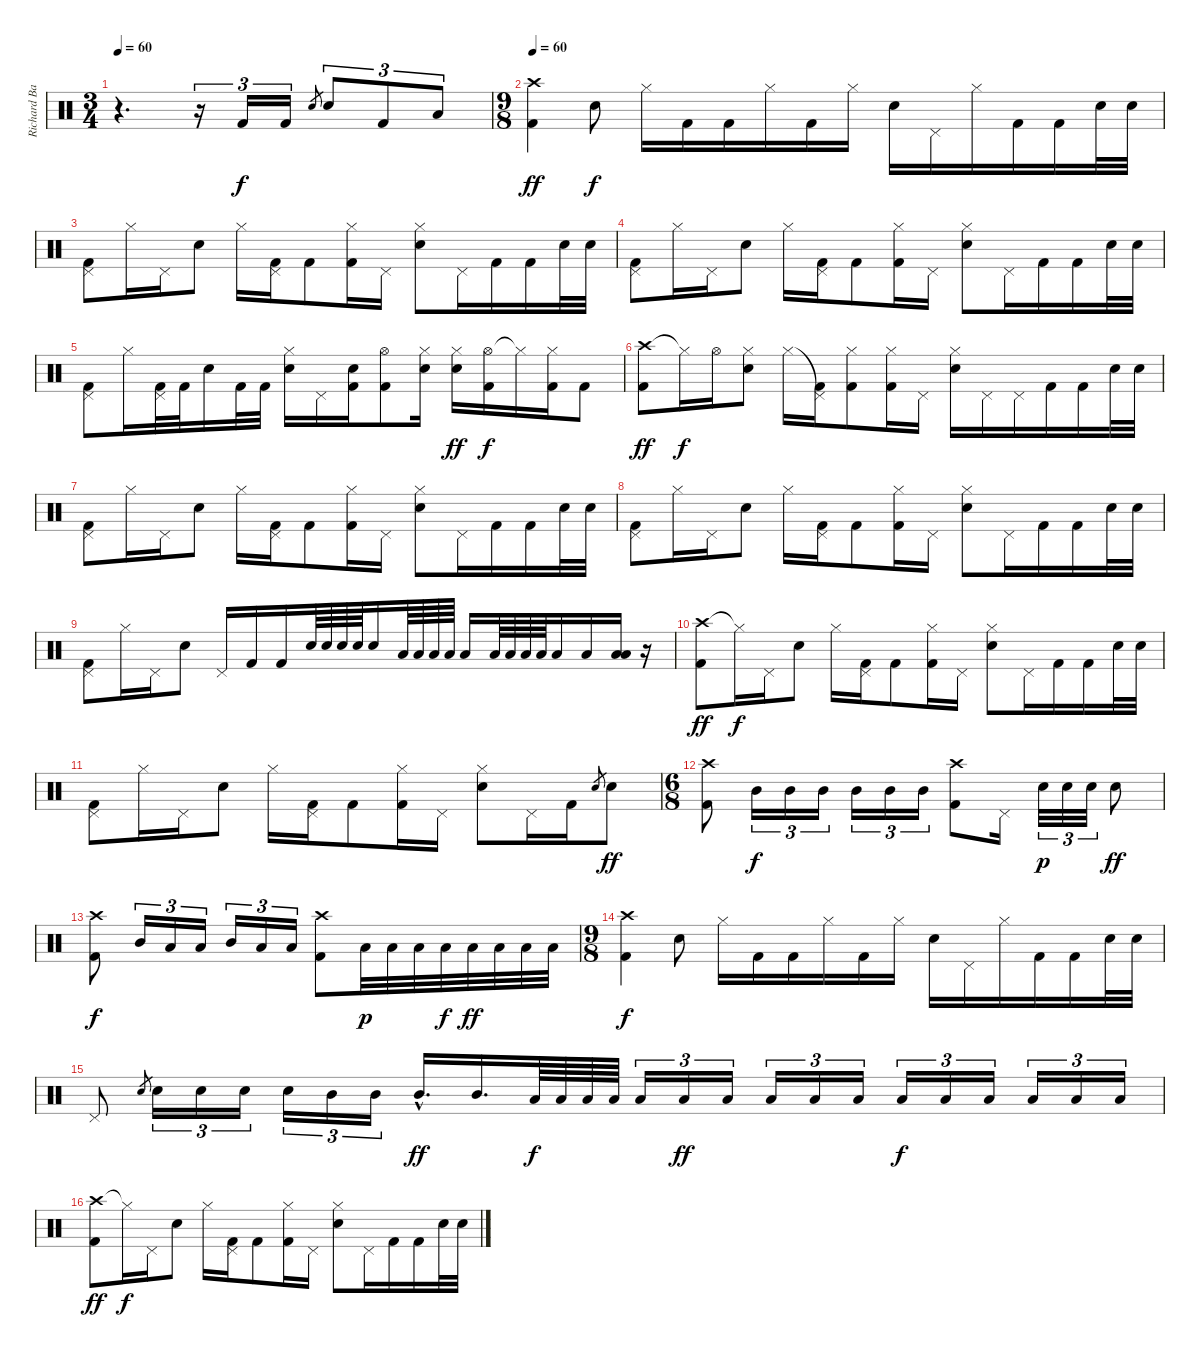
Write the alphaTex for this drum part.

\track ("Richard Bailey" "Richard Ba") {instrument percussion}
\staff {score}
\articulation defaults
\ts (3 4)
\tempo 60
\tempo 66
\tempo 60
\clef neutral
\ks c
r.4{d dy f} r.16{tu (3 2)} "Kick (hit) 2".16{tu (3 2)} "Kick (hit) 2".16{tu (3 2)} "Snare (hit) 2".8{gr} "Snare (hit) 2".8{tu (3 2)} "Kick (hit) 2".8{tu (3 2)} "Low Floor Tom (hit)".8{tu (3 2)} |
\ts (9 8)
\tempo 60
("Crash high (hit)" "Kick (hit) 2").4{dy ff} "Snare (hit) 2".8{dy f} "Hi-Hat (closed)".16 "Kick (hit) 2".16 "Kick (hit) 2".16 "Hi-Hat (closed)".16 "Kick (hit) 2".16 "Hi-Hat (closed)".16 "Snare (hit) 2".16 "Pedal Hi-Hat (hit)".16 "Hi-Hat (closed)".16 "Kick (hit) 2".16 "Kick (hit) 2".16 "Snare (hit) 2".32 "Snare (hit) 2".32 |
("Pedal Hi-Hat (hit)" "Kick (hit) 2").8 "Hi-Hat (closed)".16 "Pedal Hi-Hat (hit)".16 "Snare (hit) 2".8 "Hi-Hat (closed)".16 ("Pedal Hi-Hat (hit)" "Kick (hit) 2").16 "Kick (hit) 2".8 ("Hi-Hat (closed)" "Kick (hit) 2").16 "Pedal Hi-Hat (hit)".16 ("Hi-Hat (closed)" "Snare (hit) 2").8 "Pedal Hi-Hat (hit)".16 "Kick (hit) 2".16 "Kick (hit) 2".16 "Snare (hit) 2".32 "Snare (hit) 2".32 |
("Pedal Hi-Hat (hit)" "Kick (hit) 2").8 "Hi-Hat (closed)".16 "Pedal Hi-Hat (hit)".16 "Snare (hit) 2".8 "Hi-Hat (closed)".16 ("Pedal Hi-Hat (hit)" "Kick (hit) 2").16 "Kick (hit) 2".8 ("Hi-Hat (closed)" "Kick (hit) 2").16 "Pedal Hi-Hat (hit)".16 ("Hi-Hat (closed)" "Snare (hit) 2").8 "Pedal Hi-Hat (hit)".16 "Kick (hit) 2".16 "Kick (hit) 2".16 "Snare (hit) 2".32 "Snare (hit) 2".32 |
("Pedal Hi-Hat (hit)" "Kick (hit) 2").8 "Hi-Hat (closed)".16 ("Pedal Hi-Hat (hit)" "Kick (hit) 2").32 "Kick (hit) 2".32 "Snare (hit) 2".16 "Kick (hit) 2".32 "Kick (hit) 2".32 ("Hi-Hat (closed)" "Snare (hit) 2").16 "Pedal Hi-Hat (hit)".16 ("Snare (hit) 2" "Kick (hit) 2").16 ("Hi-Hat (open)" "Kick (hit) 2").8 ("Hi-Hat (closed)" "Snare (hit) 2").16 ("Hi-Hat (closed)" "Electric Snare (hit)").16{dy ff} ("Hi-Hat (open)" "Kick (hit) 2").16{dy f} "Hi-Hat (closed)"{t}.16 ("Hi-Hat (closed)" "Kick (hit) 2").16 "Kick (hit) 2".8 |
("Crash high (hit)" "Kick (hit) 2").8{dy ff} "Hi-Hat (closed)"{t}.16{dy f} "Hi-Hat (open)".16 ("Hi-Hat (closed)" "Snare (hit) 2").8 "Hi-Hat (closed)".16 ("Pedal Hi-Hat (hit)"{t} "Kick (hit) 2").16 ("Hi-Hat (closed)" "Kick (hit) 2").8 ("Hi-Hat (closed)" "Kick (hit) 2").16 "Pedal Hi-Hat (hit)".16 ("Hi-Hat (closed)" "Snare (hit) 2").16 "Pedal Hi-Hat (hit)".16 "Pedal Hi-Hat (hit)".16 "Kick (hit) 2".16 "Kick (hit) 2".16 "Snare (hit) 2".32 "Snare (hit) 2".32 |
("Pedal Hi-Hat (hit)" "Kick (hit) 2").8 "Hi-Hat (closed)".16 "Pedal Hi-Hat (hit)".16 "Snare (hit) 2".8 "Hi-Hat (closed)".16 ("Pedal Hi-Hat (hit)" "Kick (hit) 2").16 "Kick (hit) 2".8 ("Hi-Hat (closed)" "Kick (hit) 2").16 "Pedal Hi-Hat (hit)".16 ("Hi-Hat (closed)" "Snare (hit) 2").8 "Pedal Hi-Hat (hit)".16 "Kick (hit) 2".16 "Kick (hit) 2".16 "Snare (hit) 2".32 "Snare (hit) 2".32 |
("Pedal Hi-Hat (hit)" "Kick (hit) 2").8 "Hi-Hat (closed)".16 "Pedal Hi-Hat (hit)".16 "Snare (hit) 2".8 "Hi-Hat (closed)".16 ("Pedal Hi-Hat (hit)" "Kick (hit) 2").16 "Kick (hit) 2".8 ("Hi-Hat (closed)" "Kick (hit) 2").16 "Pedal Hi-Hat (hit)".16 ("Hi-Hat (closed)" "Snare (hit) 2").8 "Pedal Hi-Hat (hit)".16 "Kick (hit) 2".16 "Kick (hit) 2".16 "Snare (hit) 2".32 "Snare (hit) 2".32 |
("Pedal Hi-Hat (hit)" "Kick (hit) 2").8 "Hi-Hat (closed)".16 "Pedal Hi-Hat (hit)".16 "Snare (hit) 2".8 "Pedal Hi-Hat (hit)".16 "Kick (hit) 2".16 "Kick (hit) 2".16 "Snare (hit) 2".64 "Snare (hit) 2".64 "Snare (hit) 2".64 "Snare (hit) 2".64 "Snare (hit) 2".16 "Low Tom (hit)".64 "Low Tom (hit)".64 "Low Tom (hit)".64 "Low Tom (hit)".64 "Low Tom (hit)".16 "Low Floor Tom (hit)".64 "Low Floor Tom (hit)".64 "Low Floor Tom (hit)".64 "Low Floor Tom (hit)".64 "Low Floor Tom (hit)".16 "Low Floor Tom (hit)".16 ("Low Tom (hit)" "Low Floor Tom (hit)").16 r.16 |
("Crash high (hit)" "Kick (hit) 2").8{dy ff} "Hi-Hat (closed)"{t}.16{dy f} "Pedal Hi-Hat (hit)".16 "Snare (hit) 2".8 "Hi-Hat (closed)".16 ("Pedal Hi-Hat (hit)" "Kick (hit) 2").16 "Kick (hit) 2".8 ("Hi-Hat (closed)" "Kick (hit) 2").16 "Pedal Hi-Hat (hit)".16 ("Hi-Hat (closed)" "Snare (hit) 2").8 "Pedal Hi-Hat (hit)".16 "Kick (hit) 2".16 "Kick (hit) 2".16 "Snare (hit) 2".32 "Snare (hit) 2".32 |
("Pedal Hi-Hat (hit)" "Kick (hit) 2").8 "Hi-Hat (closed)".16 "Pedal Hi-Hat (hit)".16 "Snare (hit) 2".8 "Hi-Hat (closed)".16 ("Pedal Hi-Hat (hit)" "Kick (hit) 2").16 "Kick (hit) 2".8 ("Hi-Hat (closed)" "Kick (hit) 2").16 "Pedal Hi-Hat (hit)".16 ("Hi-Hat (closed)" "Snare (hit) 2").8 "Pedal Hi-Hat (hit)".16 "Kick (hit) 2".16 "Snare (hit) 2".8{gr} "Snare (hit) 2".8{dy ff} |
\ts (6 8)
("Crash high (hit)" "Kick (hit) 2").8 "Mid Tom (hit)".16{tu (3 2) dy f} "Mid Tom (hit)".16{tu (3 2)} "Mid Tom (hit)".16{tu (3 2)} "Mid Tom (hit)".16{tu (3 2)} "Mid Tom (hit)".16{tu (3 2)} "Mid Tom (hit)".16{tu (3 2)} ("Crash high (hit)" "Kick (hit) 2").8 "Pedal Hi-Hat (hit)".16 "Snare (hit) 2".32{tu (3 2) dy p} "Snare (hit) 2".32{tu (3 2)} "Snare (hit) 2".32{tu (3 2)} "Snare (hit) 2".8{dy ff} |
("Crash high (hit)" "Kick (hit) 2").8{dy f} "Mid Tom (hit)".16{tu (3 2)} "Low Tom (hit)".16{tu (3 2)} "Low Tom (hit)".16{tu (3 2)} "Mid Tom (hit)".16{tu (3 2)} "Low Tom (hit)".16{tu (3 2)} "Low Tom (hit)".16{tu (3 2)} ("Crash high (hit)" "Kick (hit) 2").8 "Low Tom (hit)".32{dy p} "Low Tom (hit)".32 "Low Tom (hit)".32 "Low Tom (hit)".32{dy f} "Low Tom (hit)".32{dy ff} "Low Tom (hit)".32 "Low Tom (hit)".32 "Low Tom (hit)".32 |
\ts (9 8)
("Crash high (hit)" "Kick (hit) 2").4{dy f} "Snare (hit) 2".8 "Hi-Hat (closed)".16 "Kick (hit) 2".16 "Kick (hit) 2".16 "Hi-Hat (closed)".16 "Kick (hit) 2".16 "Hi-Hat (closed)".16 "Snare (hit) 2".16 "Pedal Hi-Hat (hit)".16 "Hi-Hat (closed)".16 "Kick (hit) 2".16 "Kick (hit) 2".16 "Snare (hit) 2".32 "Snare (hit) 2".32 |
"Pedal Hi-Hat (hit)".8 "Snare (hit) 2".8{gr} "Snare (hit) 2".16{tu (3 2)} "Snare (hit) 2".16{tu (3 2)} "Snare (hit) 2".16{tu (3 2)} "Snare (hit) 2".16{tu (3 2)} "Mid Tom (hit)".16{tu (3 2)} "Mid Tom (hit)".16{tu (3 2)} "Mid Tom (hit)"{hac}.16{d dy ff} "Mid Tom (hit)".16{d} "Low Floor Tom (hit)".64{dy f} "Low Floor Tom (hit)".64 "Low Floor Tom (hit)".64 "Low Floor Tom (hit)".64 "Low Tom (hit)".16{tu (3 2)} "Low Tom (hit)".16{tu (3 2) dy ff} "Low Tom (hit)".16{tu (3 2)} "Low Tom (hit)".16{tu (3 2)} "Low Floor Tom (hit)".16{tu (3 2)} "Low Floor Tom (hit)".16{tu (3 2)} "Low Tom (hit)".16{tu (3 2) dy f} "Low Tom (hit)".16{tu (3 2)} "Low Tom (hit)".16{tu (3 2)} "Low Tom (hit)".16{tu (3 2)} "Low Tom (hit)".16{tu (3 2)} "Low Tom (hit)".16{tu (3 2)} |
("Crash high (hit)" "Kick (hit) 2").8{dy ff} "Hi-Hat (closed)"{t}.16{dy f} "Pedal Hi-Hat (hit)".16 "Snare (hit) 2".8 "Hi-Hat (closed)".16 ("Pedal Hi-Hat (hit)" "Kick (hit) 2").16 "Kick (hit) 2".8 ("Hi-Hat (closed)" "Kick (hit) 2").16 "Pedal Hi-Hat (hit)".16 ("Hi-Hat (closed)" "Snare (hit) 2").8 "Pedal Hi-Hat (hit)".16 "Kick (hit) 2".16 "Kick (hit) 2".16 "Snare (hit) 2".32 "Snare (hit) 2".32
